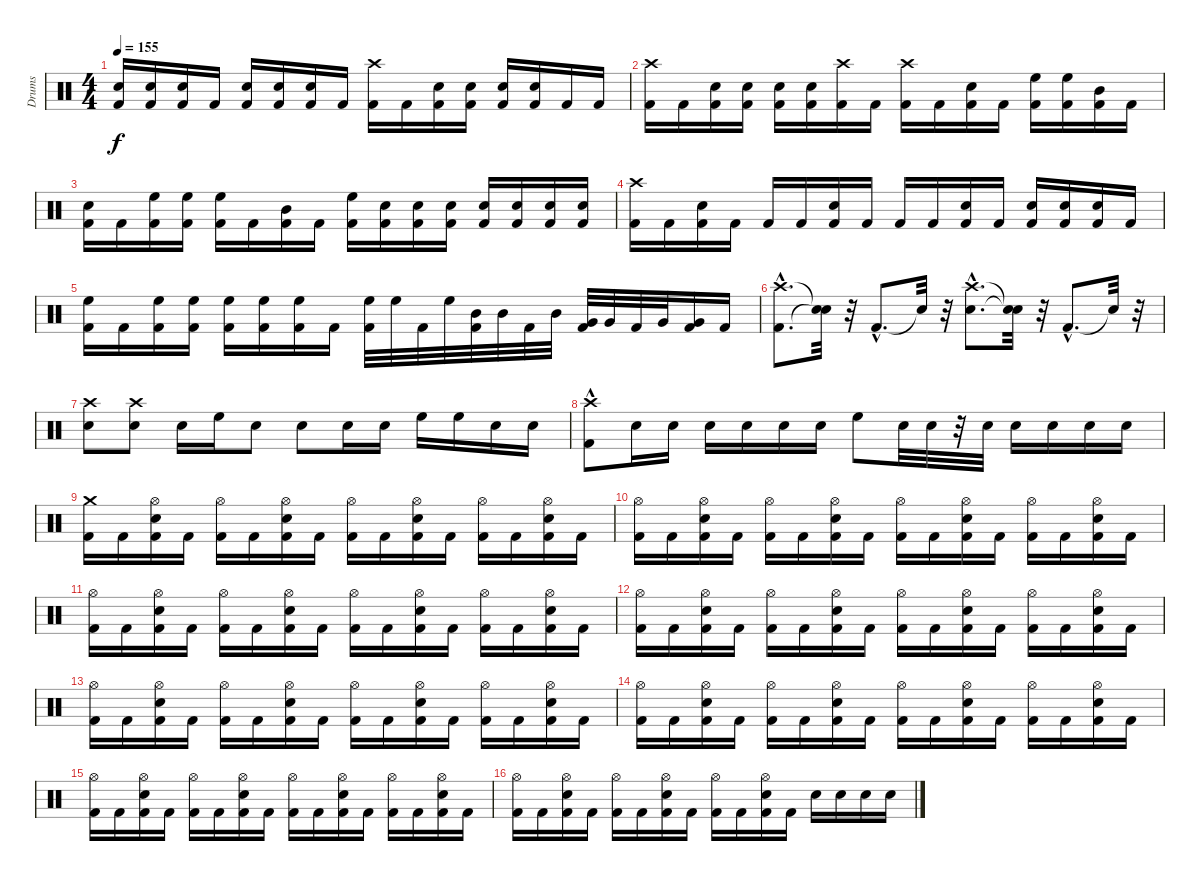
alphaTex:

\track ("Drums" "Drums") {instrument percussion}
\staff {score}
\articulation defaults
\ts (4 4)
\tempo 155
\clef neutral
\ks c
("Kick (hit) 2" "Snare (hit) 2").16{dy f} ("Kick (hit) 2" "Snare (hit) 2").16 ("Kick (hit) 2" "Snare (hit) 2").16 "Kick (hit) 2".16 ("Kick (hit) 2" "Snare (hit) 2").16 ("Kick (hit) 2" "Snare (hit) 2").16 ("Kick (hit) 2" "Snare (hit) 2").16 "Kick (hit) 2".16 ("Kick (hit) 2" "Crash high (hit)").16 "Kick (hit) 2".16 ("Kick (hit) 2" "Snare (hit) 2").16 ("Kick (hit) 2" "Snare (hit) 2").16 ("Kick (hit) 2" "Snare (hit) 2").16 ("Kick (hit) 2" "Snare (hit) 2").16 "Kick (hit) 2".16 "Kick (hit) 2".16 |
("Kick (hit) 2" "Crash high (hit)").16 "Kick (hit) 2".16 ("Kick (hit) 2" "Snare (hit) 2").16 ("Kick (hit) 2" "Snare (hit) 2").16 ("Kick (hit) 2" "Snare (hit) 2").16 ("Kick (hit) 2" "Snare (hit) 2").16 ("Kick (hit) 2" "Crash high (hit)").16 "Kick (hit) 2".16 ("Crash high (hit)" "Kick (hit) 2").16 "Kick (hit) 2".16 ("Snare (hit) 2" "Kick (hit) 2").16 "Kick (hit) 2".16 ("High Floor Tom (hit)" "Kick (hit) 2").16 ("High Floor Tom (hit)" "Kick (hit) 2").16 ("Mid Tom (hit)" "Kick (hit) 2").16 "Kick (hit) 2".16 |
("Kick (hit) 2" "Snare (hit) 2").16 "Kick (hit) 2".16 ("Kick (hit) 2" "High Floor Tom (hit)").16 ("Kick (hit) 2" "High Floor Tom (hit)").16 ("Kick (hit) 2" "High Floor Tom (hit)").16 "Kick (hit) 2".16 ("Kick (hit) 2" "Mid Tom (hit)").16 "Kick (hit) 2".16 ("Kick (hit) 2" "High Floor Tom (hit)").16 ("Kick (hit) 2" "Snare (hit) 2").16 ("Kick (hit) 2" "Snare (hit) 2").16 ("Kick (hit) 2" "Snare (hit) 2").16 ("Kick (hit) 2" "Snare (hit) 2").16 ("Kick (hit) 2" "Snare (hit) 2").16 ("Kick (hit) 2" "Snare (hit) 2").16 ("Kick (hit) 2" "Snare (hit) 2").16 |
("Kick (hit) 2" "Crash high (hit)").16 "Kick (hit) 2".16 ("Kick (hit) 2" "Snare (hit) 2").16 "Kick (hit) 2".16 "Kick (hit) 2".16 "Kick (hit) 2".16 ("Kick (hit) 2" "Snare (hit) 2").16 "Kick (hit) 2".16 "Kick (hit) 2".16 "Kick (hit) 2".16 ("Kick (hit) 2" "Snare (hit) 2").16 "Kick (hit) 2".16 ("Kick (hit) 2" "Snare (hit) 2").16 ("Kick (hit) 2" "Snare (hit) 2").16 ("Kick (hit) 2" "Snare (hit) 2").16 "Kick (hit) 2".16 |
("Kick (hit) 2" "High Floor Tom (hit)").16 "Kick (hit) 2".16 ("Kick (hit) 2" "High Floor Tom (hit)").16 ("Kick (hit) 2" "High Floor Tom (hit)").16 ("Kick (hit) 2" "High Floor Tom (hit)").16 ("Kick (hit) 2" "High Floor Tom (hit)").16 ("Kick (hit) 2" "High Floor Tom (hit)").16 "Kick (hit) 2".16 ("Kick (hit) 2" "High Floor Tom (hit)").32 "High Floor Tom (hit)".32 "Kick (hit) 2".32 "High Floor Tom (hit)".32 ("Kick (hit) 2" "Mid Tom (hit)").32 "Mid Tom (hit)".32 "Kick (hit) 2".32 "Mid Tom (hit)".32 ("Kick (hit) 2" "Very Low Tom (hit)").32 "Very Low Tom (hit)".32 "Kick (hit) 2".32 "Very Low Tom (hit)".32 ("Kick (hit) 2" "Very Low Tom (hit)").16 "Kick (hit) 2".16 |
("Kick (hit) 2"{hac} "Crash high (hit)"{hac}).8{d} ("Snare (hit)"{t} "Snare (hit)"{t}).32 r.32 "Kick (hit) 2"{hac}.8{d} "Snare (hit)"{t}.32 r.32 ("Snare (hit) 2"{hac} "Crash high (hit)"{hac}).8{d} ("Snare (hit)"{t} "Snare (hit)"{t}).32 r.32 "Kick (hit) 2"{hac}.8{d} "Snare (hit)"{t}.32 r.32 |
("Snare (hit) 2" "Crash high (hit)").8 ("Snare (hit) 2" "Crash high (hit)").8 "Snare (hit) 2".16 "High Floor Tom (hit)".16 "Snare (hit) 2".8 "Snare (hit) 2".8 "Snare (hit) 2".16 "Snare (hit) 2".16 "High Floor Tom (hit)".16 "High Floor Tom (hit)".16 "Snare (hit) 2".16 "Snare (hit) 2".16 |
("Kick (hit) 2"{hac} "Crash high (hit)").8 "Snare (hit) 2".16 "Snare (hit) 2".16 "Snare (hit) 2".16 "Snare (hit) 2".16 "Snare (hit) 2".16 "Snare (hit) 2".16 "High Floor Tom (hit)".8 "Snare (hit) 2".32 "Snare (hit) 2".32 r.32 "Snare (hit) 2".32 "Snare (hit) 2".16 "Snare (hit) 2".16 "Snare (hit) 2".16 "Snare (hit) 2".16 |
("Kick (hit) 2" "Crash medium (hit)").16 "Kick (hit) 2".16 ("Kick (hit) 2" "Snare (hit) 2" "Hi-Hat (open)").16 "Kick (hit) 2".16 ("Kick (hit) 2" "Hi-Hat (open)").16 "Kick (hit) 2".16 ("Kick (hit) 2" "Snare (hit) 2" "Hi-Hat (open)").16 "Kick (hit) 2".16 ("Kick (hit) 2" "Hi-Hat (open)").16 "Kick (hit) 2".16 ("Kick (hit) 2" "Snare (hit) 2" "Hi-Hat (open)").16 "Kick (hit) 2".16 ("Kick (hit) 2" "Hi-Hat (open)").16 "Kick (hit) 2".16 ("Kick (hit) 2" "Snare (hit) 2" "Hi-Hat (open)").16 "Kick (hit) 2".16 |
("Kick (hit) 2" "Hi-Hat (open)").16 "Kick (hit) 2".16 ("Kick (hit) 2" "Snare (hit) 2" "Hi-Hat (open)").16 "Kick (hit) 2".16 ("Kick (hit) 2" "Hi-Hat (open)").16 "Kick (hit) 2".16 ("Kick (hit) 2" "Snare (hit) 2" "Hi-Hat (open)").16 "Kick (hit) 2".16 ("Kick (hit) 2" "Hi-Hat (open)").16 "Kick (hit) 2".16 ("Kick (hit) 2" "Snare (hit) 2" "Hi-Hat (open)").16 "Kick (hit) 2".16 ("Kick (hit) 2" "Hi-Hat (open)").16 "Kick (hit) 2".16 ("Kick (hit) 2" "Snare (hit) 2" "Hi-Hat (open)").16 "Kick (hit) 2".16 |
("Kick (hit) 2" "Hi-Hat (open)").16 "Kick (hit) 2".16 ("Kick (hit) 2" "Snare (hit) 2" "Hi-Hat (open)").16 "Kick (hit) 2".16 ("Kick (hit) 2" "Hi-Hat (open)").16 "Kick (hit) 2".16 ("Kick (hit) 2" "Snare (hit) 2" "Hi-Hat (open)").16 "Kick (hit) 2".16 ("Kick (hit) 2" "Hi-Hat (open)").16 "Kick (hit) 2".16 ("Kick (hit) 2" "Snare (hit) 2" "Hi-Hat (open)").16 "Kick (hit) 2".16 ("Kick (hit) 2" "Hi-Hat (open)").16 "Kick (hit) 2".16 ("Kick (hit) 2" "Snare (hit) 2" "Hi-Hat (open)").16 "Kick (hit) 2".16 |
("Kick (hit) 2" "Hi-Hat (open)").16 "Kick (hit) 2".16 ("Kick (hit) 2" "Snare (hit) 2" "Hi-Hat (open)").16 "Kick (hit) 2".16 ("Kick (hit) 2" "Hi-Hat (open)").16 "Kick (hit) 2".16 ("Kick (hit) 2" "Snare (hit) 2" "Hi-Hat (open)").16 "Kick (hit) 2".16 ("Kick (hit) 2" "Hi-Hat (open)").16 "Kick (hit) 2".16 ("Kick (hit) 2" "Snare (hit) 2" "Hi-Hat (open)").16 "Kick (hit) 2".16 ("Kick (hit) 2" "Hi-Hat (open)").16 "Kick (hit) 2".16 ("Kick (hit) 2" "Snare (hit) 2" "Hi-Hat (open)").16 "Kick (hit) 2".16 |
("Kick (hit) 2" "Hi-Hat (open)").16 "Kick (hit) 2".16 ("Kick (hit) 2" "Snare (hit) 2" "Hi-Hat (open)").16 "Kick (hit) 2".16 ("Kick (hit) 2" "Hi-Hat (open)").16 "Kick (hit) 2".16 ("Kick (hit) 2" "Snare (hit) 2" "Hi-Hat (open)").16 "Kick (hit) 2".16 ("Kick (hit) 2" "Hi-Hat (open)").16 "Kick (hit) 2".16 ("Kick (hit) 2" "Snare (hit) 2" "Hi-Hat (open)").16 "Kick (hit) 2".16 ("Kick (hit) 2" "Hi-Hat (open)").16 "Kick (hit) 2".16 ("Kick (hit) 2" "Snare (hit) 2" "Hi-Hat (open)").16 "Kick (hit) 2".16 |
("Kick (hit) 2" "Hi-Hat (open)").16 "Kick (hit) 2".16 ("Kick (hit) 2" "Snare (hit) 2" "Hi-Hat (open)").16 "Kick (hit) 2".16 ("Kick (hit) 2" "Hi-Hat (open)").16 "Kick (hit) 2".16 ("Kick (hit) 2" "Snare (hit) 2" "Hi-Hat (open)").16 "Kick (hit) 2".16 ("Kick (hit) 2" "Hi-Hat (open)").16 "Kick (hit) 2".16 ("Kick (hit) 2" "Snare (hit) 2" "Hi-Hat (open)").16 "Kick (hit) 2".16 ("Kick (hit) 2" "Hi-Hat (open)").16 "Kick (hit) 2".16 ("Kick (hit) 2" "Snare (hit) 2" "Hi-Hat (open)").16 "Kick (hit) 2".16 |
("Kick (hit) 2" "Hi-Hat (open)").16 "Kick (hit) 2".16 ("Kick (hit) 2" "Snare (hit) 2" "Hi-Hat (open)").16 "Kick (hit) 2".16 ("Kick (hit) 2" "Hi-Hat (open)").16 "Kick (hit) 2".16 ("Kick (hit) 2" "Snare (hit) 2" "Hi-Hat (open)").16 "Kick (hit) 2".16 ("Kick (hit) 2" "Hi-Hat (open)").16 "Kick (hit) 2".16 ("Kick (hit) 2" "Snare (hit) 2" "Hi-Hat (open)").16 "Kick (hit) 2".16 ("Kick (hit) 2" "Hi-Hat (open)").16 "Kick (hit) 2".16 ("Kick (hit) 2" "Snare (hit) 2" "Hi-Hat (open)").16 "Kick (hit) 2".16 |
("Kick (hit) 2" "Hi-Hat (open)").16 "Kick (hit) 2".16 ("Kick (hit) 2" "Snare (hit) 2" "Hi-Hat (open)").16 "Kick (hit) 2".16 ("Kick (hit) 2" "Hi-Hat (open)").16 "Kick (hit) 2".16 ("Kick (hit) 2" "Snare (hit) 2" "Hi-Hat (open)").16 "Kick (hit) 2".16 ("Kick (hit) 2" "Hi-Hat (open)").16 "Kick (hit) 2".16 ("Kick (hit) 2" "Snare (hit) 2" "Hi-Hat (open)").16 "Kick (hit) 2".16 "Snare (hit) 2".16 "Snare (hit) 2".16 "Snare (hit) 2".16 "Snare (hit) 2".16
